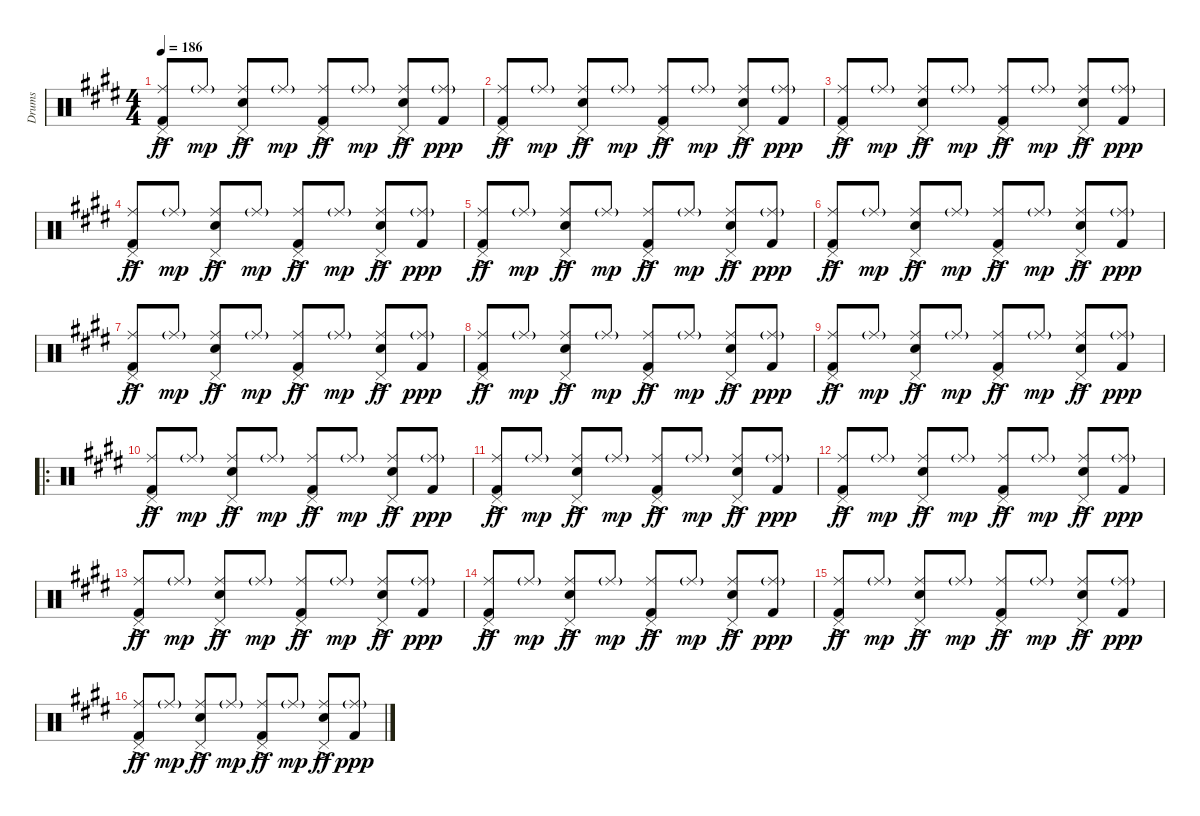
\track ("Drums" "Drums") {instrument percussion}
\staff {score}
\articulation defaults
\ts (4 4)
\tempo 186
\clef neutral
\ks e
("Pedal Hi-Hat (hit)" "Ride (middle)" "Kick (hit) 2"{ac}).8{dy ff} "Ride (middle)"{g}.8{dy mp} ("Pedal Hi-Hat (hit)" "Ride (middle)" "Snare (hit) 2"{ac}).8{dy ff} "Ride (middle)"{g}.8{dy mp} ("Pedal Hi-Hat (hit)" "Ride (middle)" "Kick (hit) 2"{ac}).8{dy ff} "Ride (middle)"{g}.8{dy mp} ("Pedal Hi-Hat (hit)" "Ride (middle)" "Snare (hit) 2"{ac}).8{dy ff} ("Ride (middle)"{g} "Kick (hit) 2").8{dy ppp} |
("Pedal Hi-Hat (hit)" "Ride (middle)" "Kick (hit) 2"{ac}).8{dy ff} "Ride (middle)"{g}.8{dy mp} ("Pedal Hi-Hat (hit)" "Ride (middle)" "Snare (hit) 2"{ac}).8{dy ff} "Ride (middle)"{g}.8{dy mp} ("Pedal Hi-Hat (hit)" "Ride (middle)" "Kick (hit) 2"{ac}).8{dy ff} "Ride (middle)"{g}.8{dy mp} ("Pedal Hi-Hat (hit)" "Ride (middle)" "Snare (hit) 2"{ac}).8{dy ff} ("Ride (middle)"{g} "Kick (hit) 2").8{dy ppp} |
("Pedal Hi-Hat (hit)" "Ride (middle)" "Kick (hit) 2"{ac}).8{dy ff} "Ride (middle)"{g}.8{dy mp} ("Pedal Hi-Hat (hit)" "Ride (middle)" "Snare (hit) 2"{ac}).8{dy ff} "Ride (middle)"{g}.8{dy mp} ("Pedal Hi-Hat (hit)" "Ride (middle)" "Kick (hit) 2"{ac}).8{dy ff} "Ride (middle)"{g}.8{dy mp} ("Pedal Hi-Hat (hit)" "Ride (middle)" "Snare (hit) 2"{ac}).8{dy ff} ("Ride (middle)"{g} "Kick (hit) 2").8{dy ppp} |
("Pedal Hi-Hat (hit)" "Ride (middle)" "Kick (hit) 2"{ac}).8{dy ff} "Ride (middle)"{g}.8{dy mp} ("Pedal Hi-Hat (hit)" "Ride (middle)" "Snare (hit) 2"{ac}).8{dy ff} "Ride (middle)"{g}.8{dy mp} ("Pedal Hi-Hat (hit)" "Ride (middle)" "Kick (hit) 2"{ac}).8{dy ff} "Ride (middle)"{g}.8{dy mp} ("Pedal Hi-Hat (hit)" "Ride (middle)" "Snare (hit) 2"{ac}).8{dy ff} ("Ride (middle)"{g} "Kick (hit) 2").8{dy ppp} |
("Pedal Hi-Hat (hit)" "Ride (middle)" "Kick (hit) 2"{ac}).8{dy ff} "Ride (middle)"{g}.8{dy mp} ("Pedal Hi-Hat (hit)" "Ride (middle)" "Snare (hit) 2"{ac}).8{dy ff} "Ride (middle)"{g}.8{dy mp} ("Pedal Hi-Hat (hit)" "Ride (middle)" "Kick (hit) 2"{ac}).8{dy ff} "Ride (middle)"{g}.8{dy mp} ("Pedal Hi-Hat (hit)" "Ride (middle)" "Snare (hit) 2"{ac}).8{dy ff} ("Ride (middle)"{g} "Kick (hit) 2").8{dy ppp} |
("Pedal Hi-Hat (hit)" "Ride (middle)" "Kick (hit) 2"{ac}).8{dy ff} "Ride (middle)"{g}.8{dy mp} ("Pedal Hi-Hat (hit)" "Ride (middle)" "Snare (hit) 2"{ac}).8{dy ff} "Ride (middle)"{g}.8{dy mp} ("Pedal Hi-Hat (hit)" "Ride (middle)" "Kick (hit) 2"{ac}).8{dy ff} "Ride (middle)"{g}.8{dy mp} ("Pedal Hi-Hat (hit)" "Ride (middle)" "Snare (hit) 2"{ac}).8{dy ff} ("Ride (middle)"{g} "Kick (hit) 2").8{dy ppp} |
("Pedal Hi-Hat (hit)" "Ride (middle)" "Kick (hit) 2"{ac}).8{dy ff} "Ride (middle)"{g}.8{dy mp} ("Pedal Hi-Hat (hit)" "Ride (middle)" "Snare (hit) 2"{ac}).8{dy ff} "Ride (middle)"{g}.8{dy mp} ("Pedal Hi-Hat (hit)" "Ride (middle)" "Kick (hit) 2"{ac}).8{dy ff} "Ride (middle)"{g}.8{dy mp} ("Pedal Hi-Hat (hit)" "Ride (middle)" "Snare (hit) 2"{ac}).8{dy ff} ("Ride (middle)"{g} "Kick (hit) 2").8{dy ppp} |
("Pedal Hi-Hat (hit)" "Ride (middle)" "Kick (hit) 2"{ac}).8{dy ff} "Ride (middle)"{g}.8{dy mp} ("Pedal Hi-Hat (hit)" "Ride (middle)" "Snare (hit) 2"{ac}).8{dy ff} "Ride (middle)"{g}.8{dy mp} ("Pedal Hi-Hat (hit)" "Ride (middle)" "Kick (hit) 2"{ac}).8{dy ff} "Ride (middle)"{g}.8{dy mp} ("Pedal Hi-Hat (hit)" "Ride (middle)" "Snare (hit) 2"{ac}).8{dy ff} ("Ride (middle)"{g} "Kick (hit) 2").8{dy ppp} |
("Pedal Hi-Hat (hit)" "Ride (middle)" "Kick (hit) 2"{ac}).8{dy ff} "Ride (middle)"{g}.8{dy mp} ("Pedal Hi-Hat (hit)" "Ride (middle)" "Snare (hit) 2"{ac}).8{dy ff} "Ride (middle)"{g}.8{dy mp} ("Pedal Hi-Hat (hit)" "Ride (middle)" "Kick (hit) 2"{ac}).8{dy ff} "Ride (middle)"{g}.8{dy mp} ("Pedal Hi-Hat (hit)" "Ride (middle)" "Snare (hit) 2"{ac}).8{dy ff} ("Ride (middle)"{g} "Kick (hit) 2").8{dy ppp} |
\ro
("Pedal Hi-Hat (hit)" "Ride (middle)" "Kick (hit) 2"{ac}).8{dy ff} "Ride (middle)"{g}.8{dy mp} ("Pedal Hi-Hat (hit)" "Ride (middle)" "Snare (hit) 2"{ac}).8{dy ff} "Ride (middle)"{g}.8{dy mp} ("Pedal Hi-Hat (hit)" "Ride (middle)" "Kick (hit) 2"{ac}).8{dy ff} "Ride (middle)"{g}.8{dy mp} ("Pedal Hi-Hat (hit)" "Ride (middle)" "Snare (hit) 2"{ac}).8{dy ff} ("Ride (middle)"{g} "Kick (hit) 2").8{dy ppp} |
("Pedal Hi-Hat (hit)" "Ride (middle)" "Kick (hit) 2"{ac}).8{dy ff} "Ride (middle)"{g}.8{dy mp} ("Pedal Hi-Hat (hit)" "Ride (middle)" "Snare (hit) 2"{ac}).8{dy ff} "Ride (middle)"{g}.8{dy mp} ("Pedal Hi-Hat (hit)" "Ride (middle)" "Kick (hit) 2"{ac}).8{dy ff} "Ride (middle)"{g}.8{dy mp} ("Pedal Hi-Hat (hit)" "Ride (middle)" "Snare (hit) 2"{ac}).8{dy ff} ("Ride (middle)"{g} "Kick (hit) 2").8{dy ppp} |
("Pedal Hi-Hat (hit)" "Ride (middle)" "Kick (hit) 2"{ac}).8{dy ff} "Ride (middle)"{g}.8{dy mp} ("Pedal Hi-Hat (hit)" "Ride (middle)" "Snare (hit) 2"{ac}).8{dy ff} "Ride (middle)"{g}.8{dy mp} ("Pedal Hi-Hat (hit)" "Ride (middle)" "Kick (hit) 2"{ac}).8{dy ff} "Ride (middle)"{g}.8{dy mp} ("Pedal Hi-Hat (hit)" "Ride (middle)" "Snare (hit) 2"{ac}).8{dy ff} ("Ride (middle)"{g} "Kick (hit) 2").8{dy ppp} |
("Pedal Hi-Hat (hit)" "Ride (middle)" "Kick (hit) 2"{ac}).8{dy ff} "Ride (middle)"{g}.8{dy mp} ("Pedal Hi-Hat (hit)" "Ride (middle)" "Snare (hit) 2"{ac}).8{dy ff} "Ride (middle)"{g}.8{dy mp} ("Pedal Hi-Hat (hit)" "Ride (middle)" "Kick (hit) 2"{ac}).8{dy ff} "Ride (middle)"{g}.8{dy mp} ("Pedal Hi-Hat (hit)" "Ride (middle)" "Snare (hit) 2"{ac}).8{dy ff} ("Ride (middle)"{g} "Kick (hit) 2").8{dy ppp} |
("Pedal Hi-Hat (hit)" "Ride (middle)" "Kick (hit) 2"{ac}).8{dy ff} "Ride (middle)"{g}.8{dy mp} ("Pedal Hi-Hat (hit)" "Ride (middle)" "Snare (hit) 2"{ac}).8{dy ff} "Ride (middle)"{g}.8{dy mp} ("Pedal Hi-Hat (hit)" "Ride (middle)" "Kick (hit) 2"{ac}).8{dy ff} "Ride (middle)"{g}.8{dy mp} ("Pedal Hi-Hat (hit)" "Ride (middle)" "Snare (hit) 2"{ac}).8{dy ff} ("Ride (middle)"{g} "Kick (hit) 2").8{dy ppp} |
("Pedal Hi-Hat (hit)" "Ride (middle)" "Kick (hit) 2"{ac}).8{dy ff} "Ride (middle)"{g}.8{dy mp} ("Pedal Hi-Hat (hit)" "Ride (middle)" "Snare (hit) 2"{ac}).8{dy ff} "Ride (middle)"{g}.8{dy mp} ("Pedal Hi-Hat (hit)" "Ride (middle)" "Kick (hit) 2"{ac}).8{dy ff} "Ride (middle)"{g}.8{dy mp} ("Pedal Hi-Hat (hit)" "Ride (middle)" "Snare (hit) 2"{ac}).8{dy ff} ("Ride (middle)"{g} "Kick (hit) 2").8{dy ppp} |
("Pedal Hi-Hat (hit)" "Ride (middle)" "Kick (hit) 2"{ac}).8{dy ff} "Ride (middle)"{g}.8{dy mp} ("Pedal Hi-Hat (hit)" "Ride (middle)" "Snare (hit) 2"{ac}).8{dy ff} "Ride (middle)"{g}.8{dy mp} ("Pedal Hi-Hat (hit)" "Ride (middle)" "Kick (hit) 2"{ac}).8{dy ff} "Ride (middle)"{g}.8{dy mp} ("Pedal Hi-Hat (hit)" "Ride (middle)" "Snare (hit) 2"{ac}).8{dy ff} ("Ride (middle)"{g} "Kick (hit) 2").8{dy ppp}
